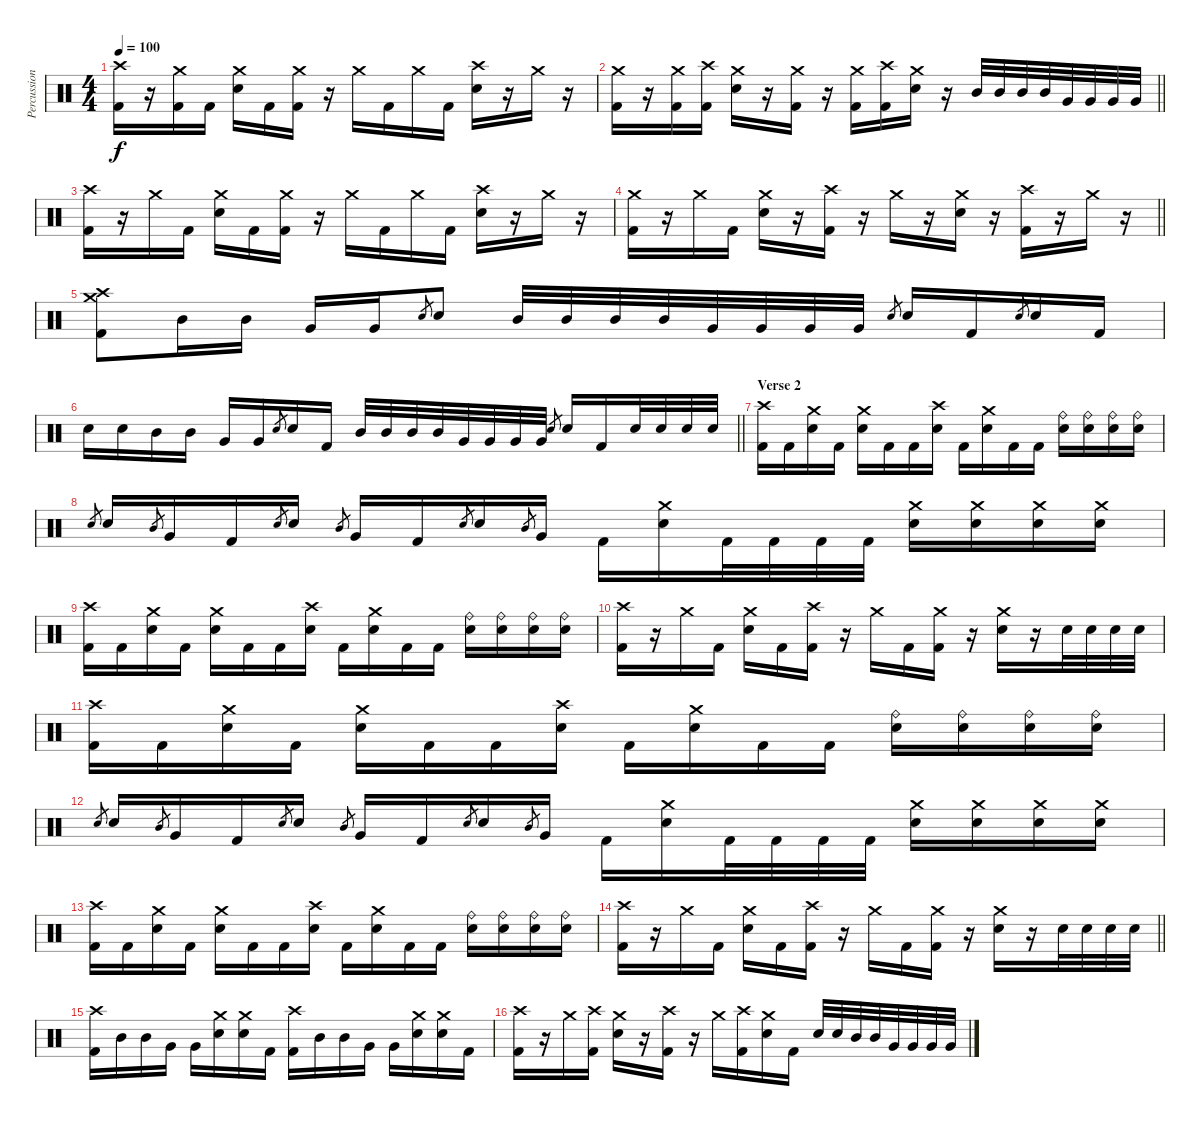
\track ("Percussion" "Percussion") {instrument percussion}
\staff {score}
\articulation defaults
\ts (4 4)
\tempo 100
\clef neutral
\ks c
("Crash high (hit)" "Kick (hit) 2").16{dy f} r.16 ("Crash medium (hit)" "Kick (hit) 2").16 "Kick (hit) 2".16 ("Crash medium (hit)" "Electric Snare (hit)").16 "Kick (hit) 2".16 ("Crash medium (hit)" "Kick (hit) 2").16 r.16 "Crash medium (hit)".16 "Kick (hit) 2".16 "Crash medium (hit)".16 "Kick (hit) 2".16 ("Crash high (hit)" "Electric Snare (hit)").16 r.16 "Crash medium (hit)".16 r.16 |
\barLineRight lightlight
("Crash medium (hit)" "Kick (hit) 2").16 r.16 ("Crash medium (hit)" "Kick (hit) 2").16 ("Crash high (hit)" "Kick (hit) 2").16 ("Crash medium (hit)" "Electric Snare (hit)").16 r.16 ("Crash medium (hit)" "Kick (hit) 2").16 r.16 ("Crash medium (hit)" "Kick (hit) 2").16 ("Crash high (hit)" "Kick (hit) 2").16 ("Crash medium (hit)" "Electric Snare (hit)").16 r.16 "Mid Tom (hit)".32 "Mid Tom (hit)".32 "Mid Tom (hit)".32 "Mid Tom (hit)".32 "Very Low Tom (hit)".32 "Very Low Tom (hit)".32 "Very Low Tom (hit)".32 "Very Low Tom (hit)".32 |
("Crash high (hit)" "Kick (hit) 2").16 r.16 "Crash medium (hit)".16 "Kick (hit) 2".16 ("Crash medium (hit)" "Electric Snare (hit)").16 "Kick (hit) 2".16 ("Crash medium (hit)" "Kick (hit) 2").16 r.16 "Crash medium (hit)".16 "Kick (hit) 2".16 "Crash medium (hit)".16 "Kick (hit) 2".16 ("Crash high (hit)" "Electric Snare (hit)").16 r.16 "Crash medium (hit)".16 r.16 |
\barLineRight lightlight
("Crash medium (hit)" "Kick (hit) 2").16 r.16 "Crash medium (hit)".16 "Kick (hit) 2".16 ("Crash medium (hit)" "Electric Snare (hit)").16 r.16 ("Crash high (hit)" "Kick (hit) 2").16 r.16 "Crash medium (hit)".16 r.16 ("Crash medium (hit)" "Electric Snare (hit)").16 r.16 ("Crash high (hit)" "Kick (hit) 2").16 r.16 "Crash medium (hit)".16 r.16 |
("Crash high (hit)" "Crash medium (hit)" "Kick (hit) 2").8 "Mid Tom (hit)".16 "Mid Tom (hit)".16 "Very Low Tom (hit)".16 "Very Low Tom (hit)".16 "Electric Snare (hit)".8{gr} "Electric Snare (hit)".8 "Mid Tom (hit)".32 "Mid Tom (hit)".32 "Mid Tom (hit)".32 "Mid Tom (hit)".32 "Very Low Tom (hit)".32 "Very Low Tom (hit)".32 "Very Low Tom (hit)".32 "Very Low Tom (hit)".32 "Electric Snare (hit)".8{gr} "Electric Snare (hit)".16 "Kick (hit) 2".16 "Electric Snare (hit)".8{gr} "Electric Snare (hit)".16 "Kick (hit) 2".16 |
\barLineRight lightlight "Electric Snare (hit)".16 "Electric Snare (hit)".16 "Mid Tom (hit)".16 "Mid Tom (hit)".16 "Very Low Tom (hit)".16 "Very Low Tom (hit)".16 "Electric Snare (hit)".8{gr} "Electric Snare (hit)".16 "Kick (hit) 2".16 "Mid Tom (hit)".32 "Mid Tom (hit)".32 "Mid Tom (hit)".32 "Mid Tom (hit)".32 "Very Low Tom (hit)".32 "Very Low Tom (hit)".32 "Very Low Tom (hit)".32 "Very Low Tom (hit)".32 "Electric Snare (hit)".8{gr} "Electric Snare (hit)".16 "Kick (hit) 2".16 "Electric Snare (hit)".32 "Electric Snare (hit)".32 "Electric Snare (hit)".32 "Electric Snare (hit)".32
|
\section ("" "Verse 2")
("Crash high (hit)" "Kick (hit) 2").16 "Kick (hit) 2".16 ("Crash medium (hit)" "Electric Snare (hit)").16 "Kick (hit) 2".16 ("Crash medium (hit)" "Electric Snare (hit)").16 "Kick (hit) 2".16 "Kick (hit) 2".16 ("Crash high (hit)" "Electric Snare (hit)").16 "Kick (hit) 2".16 ("Crash medium (hit)" "Electric Snare (hit)").16 "Kick (hit) 2".16 "Kick (hit) 2".16 ("Ride (bell)" "Electric Snare (hit)").16 ("Ride (bell)" "Electric Snare (hit)").16 ("Ride (bell)" "Electric Snare (hit)").16 ("Ride (bell)" "Electric Snare (hit)").16 |
"Electric Snare (hit)".8{gr} "Electric Snare (hit)".16 "Mid Tom (hit)".8{gr} "Very Low Tom (hit)".16 "Kick (hit) 2".16 "Electric Snare (hit)".8{gr} "Electric Snare (hit)".16 "Mid Tom (hit)".8{gr} "Very Low Tom (hit)".16 "Kick (hit) 2".16 "Electric Snare (hit)".8{gr} "Electric Snare (hit)".16 "Mid Tom (hit)".8{gr} "Very Low Tom (hit)".16 "Kick (hit) 2".16 ("Crash medium (hit)" "Electric Snare (hit)").16 "Kick (hit) 2".32 "Kick (hit) 2".32 "Kick (hit) 2".32 "Kick (hit) 2".32 ("Crash medium (hit)" "Electric Snare (hit)").16 ("Crash medium (hit)" "Electric Snare (hit)").16 ("Crash medium (hit)" "Electric Snare (hit)").16 ("Crash medium (hit)" "Electric Snare (hit)").16 |
("Crash high (hit)" "Kick (hit) 2").16 "Kick (hit) 2".16 ("Crash medium (hit)" "Electric Snare (hit)").16 "Kick (hit) 2".16 ("Crash medium (hit)" "Electric Snare (hit)").16 "Kick (hit) 2".16 "Kick (hit) 2".16 ("Crash high (hit)" "Electric Snare (hit)").16 "Kick (hit) 2".16 ("Crash medium (hit)" "Electric Snare (hit)").16 "Kick (hit) 2".16 "Kick (hit) 2".16 ("Ride (bell)" "Electric Snare (hit)").16 ("Ride (bell)" "Electric Snare (hit)").16 ("Ride (bell)" "Electric Snare (hit)").16 ("Ride (bell)" "Electric Snare (hit)").16 |
("Crash high (hit)" "Kick (hit) 2").16 r.16 "Crash medium (hit)".16 "Kick (hit) 2".16 ("Crash medium (hit)" "Electric Snare (hit)").16 "Kick (hit) 2".16 ("Crash high (hit)" "Kick (hit) 2").16 r.16 "Crash medium (hit)".16 "Kick (hit) 2".16 ("Crash medium (hit)" "Kick (hit) 2").16 r.16 ("Crash medium (hit)" "Electric Snare (hit)").16 r.16 "Electric Snare (hit)".32 "Electric Snare (hit)".32 "Electric Snare (hit)".32 "Electric Snare (hit)".32 |
("Crash high (hit)" "Kick (hit) 2").16 "Kick (hit) 2".16 ("Crash medium (hit)" "Electric Snare (hit)").16 "Kick (hit) 2".16 ("Crash medium (hit)" "Electric Snare (hit)").16 "Kick (hit) 2".16 "Kick (hit) 2".16 ("Crash high (hit)" "Electric Snare (hit)").16 "Kick (hit) 2".16 ("Crash medium (hit)" "Electric Snare (hit)").16 "Kick (hit) 2".16 "Kick (hit) 2".16 ("Ride (bell)" "Electric Snare (hit)").16 ("Ride (bell)" "Electric Snare (hit)").16 ("Ride (bell)" "Electric Snare (hit)").16 ("Ride (bell)" "Electric Snare (hit)").16 |
"Electric Snare (hit)".8{gr} "Electric Snare (hit)".16 "Mid Tom (hit)".8{gr} "Very Low Tom (hit)".16 "Kick (hit) 2".16 "Electric Snare (hit)".8{gr} "Electric Snare (hit)".16 "Mid Tom (hit)".8{gr} "Very Low Tom (hit)".16 "Kick (hit) 2".16 "Electric Snare (hit)".8{gr} "Electric Snare (hit)".16 "Mid Tom (hit)".8{gr} "Very Low Tom (hit)".16 "Kick (hit) 2".16 ("Crash medium (hit)" "Electric Snare (hit)").16 "Kick (hit) 2".32 "Kick (hit) 2".32 "Kick (hit) 2".32 "Kick (hit) 2".32 ("Crash medium (hit)" "Electric Snare (hit)").16 ("Crash medium (hit)" "Electric Snare (hit)").16 ("Crash medium (hit)" "Electric Snare (hit)").16 ("Crash medium (hit)" "Electric Snare (hit)").16 |
("Crash high (hit)" "Kick (hit) 2").16 "Kick (hit) 2".16 ("Crash medium (hit)" "Electric Snare (hit)").16 "Kick (hit) 2".16 ("Crash medium (hit)" "Electric Snare (hit)").16 "Kick (hit) 2".16 "Kick (hit) 2".16 ("Crash high (hit)" "Electric Snare (hit)").16 "Kick (hit) 2".16 ("Crash medium (hit)" "Electric Snare (hit)").16 "Kick (hit) 2".16 "Kick (hit) 2".16 ("Ride (bell)" "Electric Snare (hit)").16 ("Ride (bell)" "Electric Snare (hit)").16 ("Ride (bell)" "Electric Snare (hit)").16 ("Ride (bell)" "Electric Snare (hit)").16 |
\barLineRight lightlight
("Crash high (hit)" "Kick (hit) 2").16 r.16 "Crash medium (hit)".16 "Kick (hit) 2".16 ("Crash medium (hit)" "Electric Snare (hit)").16 "Kick (hit) 2".16 ("Crash high (hit)" "Kick (hit) 2").16 r.16 "Crash medium (hit)".16 "Kick (hit) 2".16 ("Crash medium (hit)" "Kick (hit) 2").16 r.16 ("Crash medium (hit)" "Electric Snare (hit)").16 r.16 "Electric Snare (hit)".32 "Electric Snare (hit)".32 "Electric Snare (hit)".32 "Electric Snare (hit)".32 |
("Crash high (hit)" "Kick (hit) 2").16 "Mid Tom (hit)".16 "Mid Tom (hit)".16 "Very Low Tom (hit)".16 "Very Low Tom (hit)".16 ("Crash medium (hit)" "Electric Snare (hit)").16 ("Crash medium (hit)" "Electric Snare (hit)").16 "Kick (hit) 2".16 ("Crash high (hit)" "Kick (hit) 2").16 "Mid Tom (hit)".16 "Mid Tom (hit)".16 "Very Low Tom (hit)".16 "Very Low Tom (hit)".16 ("Crash medium (hit)" "Electric Snare (hit)").16 ("Crash medium (hit)" "Electric Snare (hit)").16 "Kick (hit) 2".16 |
("Crash high (hit)" "Kick (hit) 2").16 r.16 "Crash medium (hit)".16 ("Crash high (hit)" "Kick (hit) 2").16 ("Crash medium (hit)" "Electric Snare (hit)").16 r.16 ("Crash high (hit)" "Kick (hit) 2").16 r.16 "Crash medium (hit)".16 ("Crash high (hit)" "Kick (hit) 2").16 ("Crash medium (hit)" "Electric Snare (hit)").16 "Kick (hit) 2".16 "Electric Snare (hit)".32 "Electric Snare (hit)".32 "Mid Tom (hit)".32 "Mid Tom (hit)".32 "Very Low Tom (hit)".32 "Very Low Tom (hit)".32 "Very Low Tom (hit)".32 "Very Low Tom (hit)".32
